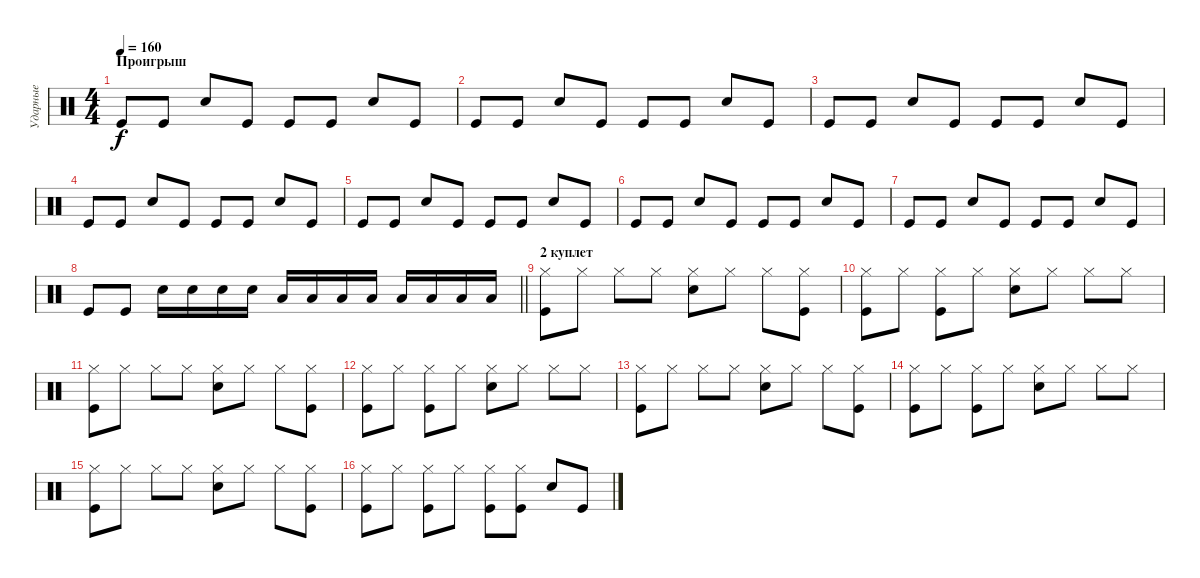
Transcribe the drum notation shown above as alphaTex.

\track ("Ударные" "Ударные") {instrument percussion}
\staff {score}
\articulation defaults
\ts (4 4)
\section ("" "Проигрыш")
\tempo 160
\clef neutral
\ks c "Kick (hit)".8{dy f} "Kick (hit)".8 "Snare (hit) 2".8 "Kick (hit)".8 "Kick (hit)".8 "Kick (hit)".8 "Snare (hit) 2".8 "Kick (hit)".8
|
"Kick (hit)".8 "Kick (hit)".8 "Snare (hit) 2".8 "Kick (hit)".8 "Kick (hit)".8 "Kick (hit)".8 "Snare (hit) 2".8 "Kick (hit)".8 |
"Kick (hit)".8 "Kick (hit)".8 "Snare (hit) 2".8 "Kick (hit)".8 "Kick (hit)".8 "Kick (hit)".8 "Snare (hit) 2".8 "Kick (hit)".8 |
"Kick (hit)".8 "Kick (hit)".8 "Snare (hit) 2".8 "Kick (hit)".8 "Kick (hit)".8 "Kick (hit)".8 "Snare (hit) 2".8 "Kick (hit)".8 |
"Kick (hit)".8 "Kick (hit)".8 "Snare (hit) 2".8 "Kick (hit)".8 "Kick (hit)".8 "Kick (hit)".8 "Snare (hit) 2".8 "Kick (hit)".8 |
"Kick (hit)".8 "Kick (hit)".8 "Snare (hit) 2".8 "Kick (hit)".8 "Kick (hit)".8 "Kick (hit)".8 "Snare (hit) 2".8 "Kick (hit)".8 |
"Kick (hit)".8 "Kick (hit)".8 "Snare (hit) 2".8 "Kick (hit)".8 "Kick (hit)".8 "Kick (hit)".8 "Snare (hit) 2".8 "Kick (hit)".8 |
\barLineRight lightlight "Kick (hit)".8 "Kick (hit)".8 "Snare (hit) 2".16 "Snare (hit) 2".16 "Snare (hit) 2".16 "Snare (hit) 2".16 "Low Tom (hit)".16 "Low Tom (hit)".16 "Low Tom (hit)".16 "Low Tom (hit)".16 "Low Floor Tom (hit)".16 "Low Floor Tom (hit)".16 "Low Floor Tom (hit)".16 "Low Floor Tom (hit)".16
|
\section ("" "2 куплет")
("Kick (hit)" "Hi-Hat (closed)").8 "Hi-Hat (closed)".8 "Hi-Hat (closed)".8 "Hi-Hat (closed)".8 ("Snare (hit) 2" "Hi-Hat (closed)").8 "Hi-Hat (closed)".8 "Hi-Hat (closed)".8 ("Kick (hit)" "Hi-Hat (closed)").8 |
("Kick (hit)" "Hi-Hat (closed)").8 "Hi-Hat (closed)".8 ("Kick (hit)" "Hi-Hat (closed)").8 "Hi-Hat (closed)".8 ("Snare (hit) 2" "Hi-Hat (closed)").8 "Hi-Hat (closed)".8 "Hi-Hat (closed)".8 "Hi-Hat (closed)".8 |
("Kick (hit)" "Hi-Hat (closed)").8 "Hi-Hat (closed)".8 "Hi-Hat (closed)".8 "Hi-Hat (closed)".8 ("Snare (hit) 2" "Hi-Hat (closed)").8 "Hi-Hat (closed)".8 "Hi-Hat (closed)".8 ("Kick (hit)" "Hi-Hat (closed)").8 |
("Kick (hit)" "Hi-Hat (closed)").8 "Hi-Hat (closed)".8 ("Kick (hit)" "Hi-Hat (closed)").8 "Hi-Hat (closed)".8 ("Snare (hit) 2" "Hi-Hat (closed)").8 "Hi-Hat (closed)".8 "Hi-Hat (closed)".8 "Hi-Hat (closed)".8 |
("Kick (hit)" "Hi-Hat (closed)").8 "Hi-Hat (closed)".8 "Hi-Hat (closed)".8 "Hi-Hat (closed)".8 ("Snare (hit) 2" "Hi-Hat (closed)").8 "Hi-Hat (closed)".8 "Hi-Hat (closed)".8 ("Kick (hit)" "Hi-Hat (closed)").8 |
("Kick (hit)" "Hi-Hat (closed)").8 "Hi-Hat (closed)".8 ("Kick (hit)" "Hi-Hat (closed)").8 "Hi-Hat (closed)".8 ("Snare (hit) 2" "Hi-Hat (closed)").8 "Hi-Hat (closed)".8 "Hi-Hat (closed)".8 "Hi-Hat (closed)".8 |
("Kick (hit)" "Hi-Hat (closed)").8 "Hi-Hat (closed)".8 "Hi-Hat (closed)".8 "Hi-Hat (closed)".8 ("Snare (hit) 2" "Hi-Hat (closed)").8 "Hi-Hat (closed)".8 "Hi-Hat (closed)".8 ("Kick (hit)" "Hi-Hat (closed)").8 |
("Kick (hit)" "Hi-Hat (closed)").8 "Hi-Hat (closed)".8 ("Kick (hit)" "Hi-Hat (closed)").8 "Hi-Hat (closed)".8 ("Kick (hit)" "Hi-Hat (closed)").8 ("Kick (hit)" "Hi-Hat (closed)").8 "Snare (hit) 2".8 "Kick (hit)".8
